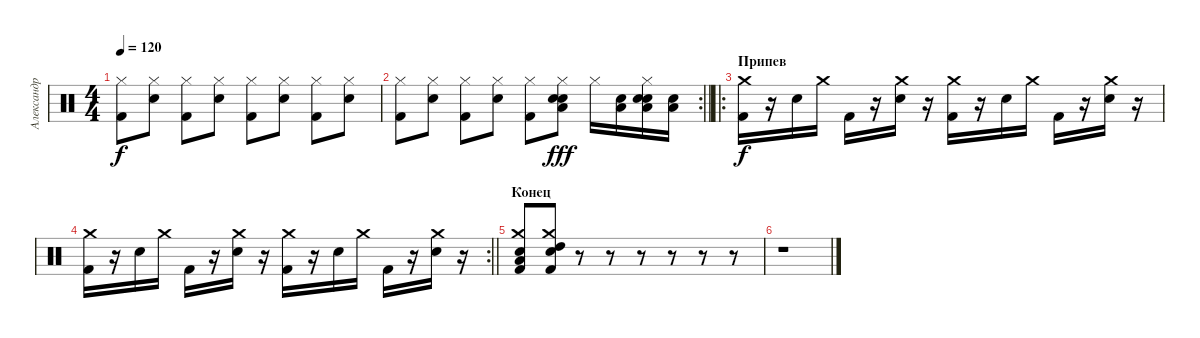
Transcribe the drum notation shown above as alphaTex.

\track ("Александр Якушев" "Александр ") {instrument percussion}
\staff {score}
\articulation defaults
\ts (4 4)
\tempo 120
\clef neutral
\ks c
("Hi-Hat (closed)" "Kick (hit) 2").8{dy f} ("Hi-Hat (closed)" "Snare (hit) 2").8 ("Hi-Hat (closed)" "Kick (hit) 2").8 ("Hi-Hat (closed)" "Snare (hit) 2").8 ("Hi-Hat (closed)" "Kick (hit) 2").8 ("Hi-Hat (closed)" "Snare (hit) 2").8 ("Hi-Hat (closed)" "Kick (hit) 2").8 ("Hi-Hat (closed)" "Snare (hit) 2").8 |
\rc 2
\barLineRight lightlight
("Hi-Hat (closed)" "Kick (hit) 2").8 ("Hi-Hat (closed)" "Snare (hit) 2").8 ("Hi-Hat (closed)" "Kick (hit) 2").8 ("Hi-Hat (closed)" "Snare (hit) 2").8 ("Hi-Hat (closed)" "Kick (hit) 2").8 ("Hi-Hat (closed)" "Low Floor Tom (hit)" "Electric Snare (hit)" "Snare (hit) 2").8{dy fff} "Hi-Hat (closed)".16 ("Low Floor Tom (hit)" "Electric Snare (hit)").16 ("Hi-Hat (closed)" "Low Floor Tom (hit)" "Electric Snare (hit)" "Snare (hit) 2").16 ("Low Floor Tom (hit)" "Electric Snare (hit)").16 |
\ro
\section ("" "Припев")
("Crash medium (hit)" "Kick (hit) 2").16{dy f} r.16 "Snare (hit) 2".16 "Crash medium (hit)".16 "Kick (hit) 2".16 r.16 ("Crash medium (hit)" "Snare (hit) 2").16 r.16 ("Crash medium (hit)" "Kick (hit) 2").16 r.16 "Snare (hit) 2".16 "Crash medium (hit)".16 "Kick (hit) 2".16 r.16 ("Crash medium (hit)" "Snare (hit) 2").16 r.16 |
\rc 2
\barLineRight lightlight
("Crash medium (hit)" "Kick (hit) 2").16 r.16 "Snare (hit) 2".16 "Crash medium (hit)".16 "Kick (hit) 2".16 r.16 ("Crash medium (hit)" "Snare (hit) 2").16 r.16 ("Crash medium (hit)" "Kick (hit) 2").16 r.16 "Snare (hit) 2".16 "Crash medium (hit)".16 "Kick (hit) 2".16 r.16 ("Crash medium (hit)" "Snare (hit) 2").16 r.16 |
\section ("" "Конец")
("Kick (hit) 2" "Snare (hit) 2" "Crash medium (hit)" "Low Tom (hit)").8 ("Kick (hit) 2" "Snare (hit) 2" "Crash medium (hit)" "High Tom (hit)").8 r.8 r.8 r.8 r.8 r.8 r.8 |
r.1
